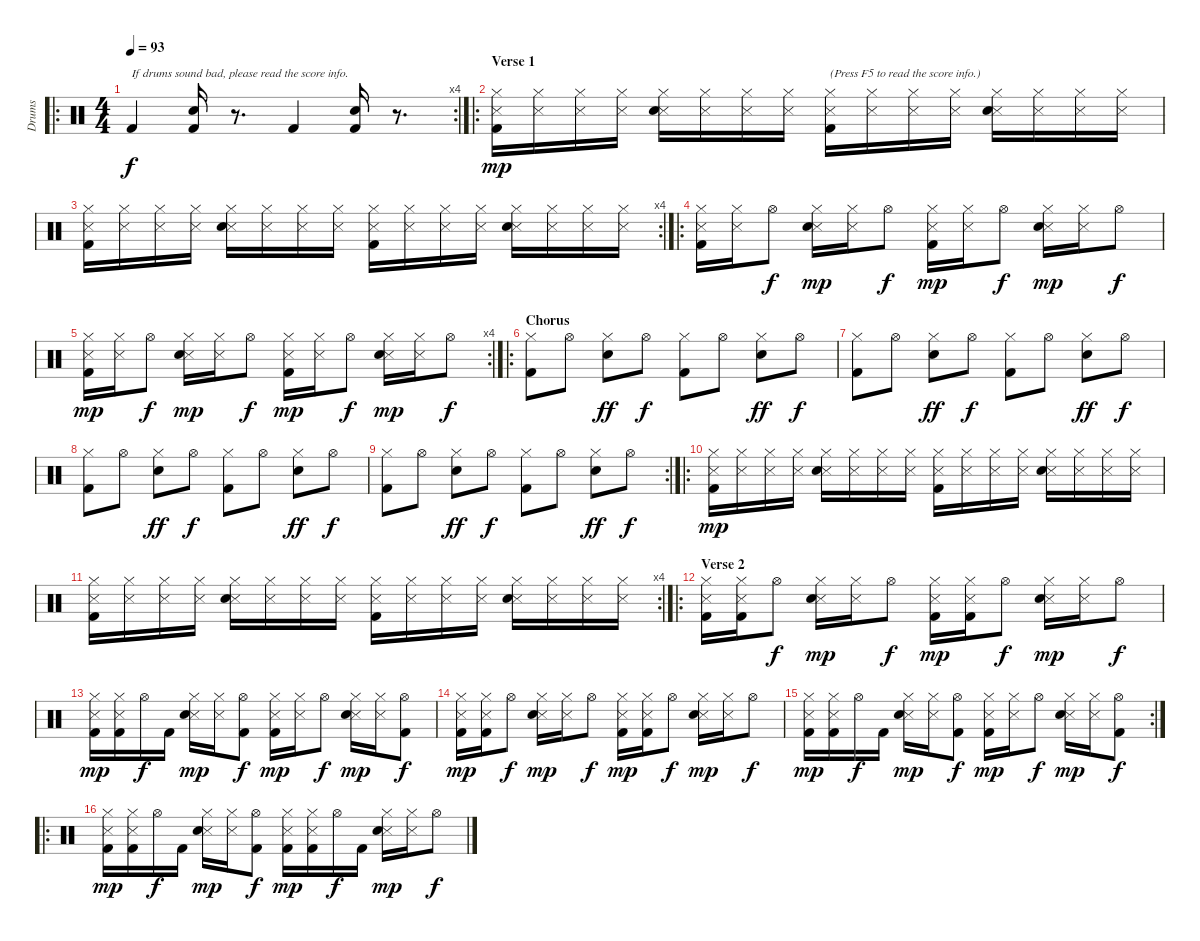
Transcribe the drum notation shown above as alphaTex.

\track ("Drums" "Drums") {instrument percussion}
\staff {score}
\articulation defaults
\ro
\rc 4
\ts (4 4)
\tempo 93
\clef neutral
\ks c "Kick (hit) 2".4{txt "If drums sound bad, please read the score info." dy f volume 13}
("Snare (hit) 2" "Kick (hit) 2").16 r.8{d volume 0} "Kick (hit) 2".4{volume 13} ("Snare (hit) 2" "Kick (hit) 2").16 r.8{d volume 0} |
\ro
\section ("" "Verse 1")
("Metronome (hit)" "Hi-Hat (closed)" "Kick (hit) 2").16{dy mp volume 13} ("Metronome (hit)" "Hi-Hat (closed)").16 ("Metronome (hit)" "Hi-Hat (closed)").16 ("Metronome (hit)" "Hi-Hat (closed)").16 ("Metronome (hit)" "Hi-Hat (closed)" "Snare (hit) 2").16 ("Metronome (hit)" "Hi-Hat (closed)").16 ("Metronome (hit)" "Hi-Hat (closed)").16 ("Metronome (hit)" "Hi-Hat (closed)").16 ("Metronome (hit)" "Hi-Hat (closed)" "Kick (hit) 2").16{txt "(Press F5 to read the score info.)"} ("Metronome (hit)" "Hi-Hat (closed)").16 ("Metronome (hit)" "Hi-Hat (closed)").16 ("Metronome (hit)" "Hi-Hat (closed)").16 ("Metronome (hit)" "Hi-Hat (closed)" "Snare (hit) 2").16 ("Metronome (hit)" "Hi-Hat (closed)").16 ("Metronome (hit)" "Hi-Hat (closed)").16 ("Metronome (hit)" "Hi-Hat (closed)").16 |
\rc 4
("Metronome (hit)" "Hi-Hat (closed)" "Kick (hit) 2").16 ("Metronome (hit)" "Hi-Hat (closed)").16 ("Metronome (hit)" "Hi-Hat (closed)").16 ("Metronome (hit)" "Hi-Hat (closed)").16 ("Metronome (hit)" "Hi-Hat (closed)" "Snare (hit) 2").16 ("Metronome (hit)" "Hi-Hat (closed)").16 ("Metronome (hit)" "Hi-Hat (closed)").16 ("Metronome (hit)" "Hi-Hat (closed)").16 ("Metronome (hit)" "Hi-Hat (closed)" "Kick (hit) 2").16 ("Metronome (hit)" "Hi-Hat (closed)").16 ("Metronome (hit)" "Hi-Hat (closed)").16 ("Metronome (hit)" "Hi-Hat (closed)").16 ("Metronome (hit)" "Hi-Hat (closed)" "Snare (hit) 2").16 ("Metronome (hit)" "Hi-Hat (closed)").16 ("Metronome (hit)" "Hi-Hat (closed)").16 ("Metronome (hit)" "Hi-Hat (closed)").16 |
\ro
("Metronome (hit)" "Hi-Hat (closed)" "Kick (hit) 2").16 ("Metronome (hit)" "Hi-Hat (closed)").16 "Hi-Hat (open)".8{dy f} ("Metronome (hit)" "Hi-Hat (closed)" "Snare (hit) 2").16{dy mp} ("Metronome (hit)" "Hi-Hat (closed)").16 "Hi-Hat (open)".8{dy f} ("Metronome (hit)" "Hi-Hat (closed)" "Kick (hit) 2").16{dy mp} ("Metronome (hit)" "Hi-Hat (closed)").16 "Hi-Hat (open)".8{dy f} ("Metronome (hit)" "Hi-Hat (closed)" "Snare (hit) 2").16{dy mp} ("Metronome (hit)" "Hi-Hat (closed)").16 "Hi-Hat (open)".8{dy f} |
\rc 4
("Metronome (hit)" "Hi-Hat (closed)" "Kick (hit) 2").16{dy mp} ("Metronome (hit)" "Hi-Hat (closed)").16 "Hi-Hat (open)".8{dy f} ("Metronome (hit)" "Hi-Hat (closed)" "Snare (hit) 2").16{dy mp} ("Metronome (hit)" "Hi-Hat (closed)").16 "Hi-Hat (open)".8{dy f} ("Metronome (hit)" "Hi-Hat (closed)" "Kick (hit) 2").16{dy mp} ("Metronome (hit)" "Hi-Hat (closed)").16 "Hi-Hat (open)".8{dy f} ("Metronome (hit)" "Hi-Hat (closed)" "Snare (hit) 2").16{dy mp} ("Metronome (hit)" "Hi-Hat (closed)").16 "Hi-Hat (open)".8{dy f} |
\ro
\section ("" "Chorus")
("Hi-Hat (closed)" "Kick (hit) 2").8 "Hi-Hat (open)".8 ("Hi-Hat (closed)" "Electric Snare (hit)").8{dy ff} "Hi-Hat (open)".8{dy f} ("Hi-Hat (closed)" "Kick (hit) 2").8 "Hi-Hat (open)".8 ("Hi-Hat (closed)" "Electric Snare (hit)").8{dy ff} "Hi-Hat (open)".8{dy f} |
("Hi-Hat (closed)" "Kick (hit) 2").8 "Hi-Hat (open)".8 ("Hi-Hat (closed)" "Electric Snare (hit)").8{dy ff} "Hi-Hat (open)".8{dy f} ("Hi-Hat (closed)" "Kick (hit) 2").8 "Hi-Hat (open)".8 ("Hi-Hat (closed)" "Electric Snare (hit)").8{dy ff} "Hi-Hat (open)".8{dy f} |
("Hi-Hat (closed)" "Kick (hit) 2").8 "Hi-Hat (open)".8 ("Hi-Hat (closed)" "Electric Snare (hit)").8{dy ff} "Hi-Hat (open)".8{dy f} ("Hi-Hat (closed)" "Kick (hit) 2").8 "Hi-Hat (open)".8 ("Hi-Hat (closed)" "Electric Snare (hit)").8{dy ff} "Hi-Hat (open)".8{dy f} |
\rc 2
("Hi-Hat (closed)" "Kick (hit) 2").8 "Hi-Hat (open)".8 ("Hi-Hat (closed)" "Electric Snare (hit)").8{dy ff} "Hi-Hat (open)".8{dy f} ("Hi-Hat (closed)" "Kick (hit) 2").8 "Hi-Hat (open)".8 ("Hi-Hat (closed)" "Electric Snare (hit)").8{dy ff} "Hi-Hat (open)".8{dy f} |
\ro
("Metronome (hit)" "Hi-Hat (closed)" "Kick (hit) 2").16{dy mp} ("Metronome (hit)" "Hi-Hat (closed)").16 ("Metronome (hit)" "Hi-Hat (closed)").16 ("Metronome (hit)" "Hi-Hat (closed)").16 ("Metronome (hit)" "Hi-Hat (closed)" "Snare (hit) 2").16 ("Metronome (hit)" "Hi-Hat (closed)").16 ("Metronome (hit)" "Hi-Hat (closed)").16 ("Metronome (hit)" "Hi-Hat (closed)").16 ("Metronome (hit)" "Hi-Hat (closed)" "Kick (hit) 2").16 ("Metronome (hit)" "Hi-Hat (closed)").16 ("Metronome (hit)" "Hi-Hat (closed)").16 ("Metronome (hit)" "Hi-Hat (closed)").16 ("Metronome (hit)" "Hi-Hat (closed)" "Snare (hit) 2").16 ("Metronome (hit)" "Hi-Hat (closed)").16 ("Metronome (hit)" "Hi-Hat (closed)").16 ("Metronome (hit)" "Hi-Hat (closed)").16 |
\rc 4
("Metronome (hit)" "Hi-Hat (closed)" "Kick (hit) 2").16 ("Metronome (hit)" "Hi-Hat (closed)").16 ("Metronome (hit)" "Hi-Hat (closed)").16 ("Metronome (hit)" "Hi-Hat (closed)").16 ("Metronome (hit)" "Hi-Hat (closed)" "Snare (hit) 2").16 ("Metronome (hit)" "Hi-Hat (closed)").16 ("Metronome (hit)" "Hi-Hat (closed)").16 ("Metronome (hit)" "Hi-Hat (closed)").16 ("Metronome (hit)" "Hi-Hat (closed)" "Kick (hit) 2").16 ("Metronome (hit)" "Hi-Hat (closed)").16 ("Metronome (hit)" "Hi-Hat (closed)").16 ("Metronome (hit)" "Hi-Hat (closed)").16 ("Metronome (hit)" "Hi-Hat (closed)" "Snare (hit) 2").16 ("Metronome (hit)" "Hi-Hat (closed)").16 ("Metronome (hit)" "Hi-Hat (closed)").16 ("Metronome (hit)" "Hi-Hat (closed)").16 |
\ro
\section ("" "Verse 2")
("Metronome (hit)" "Hi-Hat (closed)" "Kick (hit) 2").16 ("Metronome (hit)" "Hi-Hat (closed)" "Kick (hit) 2").16 "Hi-Hat (open)".8{dy f} ("Metronome (hit)" "Hi-Hat (closed)" "Snare (hit) 2").16{dy mp} ("Metronome (hit)" "Hi-Hat (closed)").16 "Hi-Hat (open)".8{dy f} ("Metronome (hit)" "Hi-Hat (closed)" "Kick (hit) 2").16{dy mp} ("Metronome (hit)" "Hi-Hat (closed)" "Kick (hit) 2").16 "Hi-Hat (open)".8{dy f} ("Metronome (hit)" "Hi-Hat (closed)" "Snare (hit) 2").16{dy mp} ("Metronome (hit)" "Hi-Hat (closed)").16 "Hi-Hat (open)".8{dy f} |
("Metronome (hit)" "Hi-Hat (closed)" "Kick (hit) 2").16{dy mp} ("Metronome (hit)" "Hi-Hat (closed)" "Kick (hit) 2").16 "Hi-Hat (open)".16{dy f} "Kick (hit) 2".16 ("Metronome (hit)" "Hi-Hat (closed)" "Snare (hit) 2").16{dy mp} ("Metronome (hit)" "Hi-Hat (closed)").16 ("Hi-Hat (open)" "Kick (hit) 2").8{dy f} ("Metronome (hit)" "Hi-Hat (closed)" "Kick (hit) 2").16{dy mp} ("Metronome (hit)" "Hi-Hat (closed)").16 "Hi-Hat (open)".8{dy f} ("Metronome (hit)" "Hi-Hat (closed)" "Snare (hit) 2").16{dy mp} ("Metronome (hit)" "Hi-Hat (closed)").16 ("Hi-Hat (open)" "Kick (hit) 2").8{dy f} |
("Metronome (hit)" "Hi-Hat (closed)" "Kick (hit) 2").16{dy mp} ("Metronome (hit)" "Hi-Hat (closed)" "Kick (hit) 2").16 "Hi-Hat (open)".8{dy f} ("Metronome (hit)" "Hi-Hat (closed)" "Snare (hit) 2").16{dy mp} ("Metronome (hit)" "Hi-Hat (closed)").16 "Hi-Hat (open)".8{dy f} ("Metronome (hit)" "Hi-Hat (closed)" "Kick (hit) 2").16{dy mp} ("Metronome (hit)" "Hi-Hat (closed)" "Kick (hit) 2").16 "Hi-Hat (open)".8{dy f} ("Metronome (hit)" "Hi-Hat (closed)" "Snare (hit) 2").16{dy mp} ("Metronome (hit)" "Hi-Hat (closed)").16 "Hi-Hat (open)".8{dy f} |
\rc 2
("Metronome (hit)" "Hi-Hat (closed)" "Kick (hit) 2").16{dy mp} ("Metronome (hit)" "Hi-Hat (closed)" "Kick (hit) 2").16 "Hi-Hat (open)".16{dy f} "Kick (hit) 2".16 ("Metronome (hit)" "Hi-Hat (closed)" "Snare (hit) 2").16{dy mp} ("Metronome (hit)" "Hi-Hat (closed)").16 ("Hi-Hat (open)" "Kick (hit) 2").8{dy f} ("Metronome (hit)" "Hi-Hat (closed)" "Kick (hit) 2").16{dy mp} ("Metronome (hit)" "Hi-Hat (closed)").16 "Hi-Hat (open)".8{dy f} ("Metronome (hit)" "Hi-Hat (closed)" "Snare (hit) 2").16{dy mp} ("Metronome (hit)" "Hi-Hat (closed)").16 ("Hi-Hat (open)" "Kick (hit) 2").8{dy f} |
\ro
("Metronome (hit)" "Hi-Hat (closed)" "Kick (hit) 2").16{dy mp} ("Metronome (hit)" "Hi-Hat (closed)" "Kick (hit) 2").16 "Hi-Hat (open)".16{dy f} "Kick (hit) 2".16 ("Metronome (hit)" "Hi-Hat (closed)" "Snare (hit) 2").16{dy mp} ("Metronome (hit)" "Hi-Hat (closed)").16 ("Hi-Hat (open)" "Kick (hit) 2").8{dy f} ("Metronome (hit)" "Hi-Hat (closed)" "Kick (hit) 2").16{dy mp} ("Metronome (hit)" "Hi-Hat (closed)" "Kick (hit) 2").16 "Hi-Hat (open)".16{dy f} "Kick (hit) 2".16 ("Metronome (hit)" "Hi-Hat (closed)" "Snare (hit) 2").16{dy mp} ("Metronome (hit)" "Hi-Hat (closed)").16 "Hi-Hat (open)".8{dy f}
